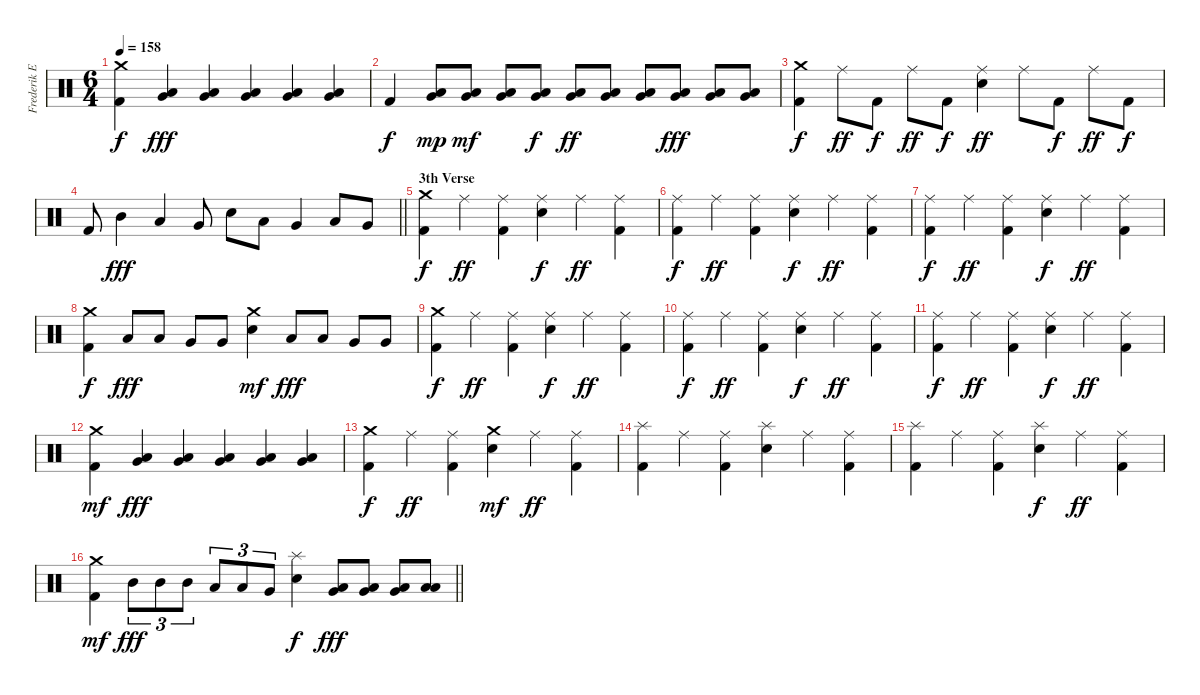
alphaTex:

\track ("Frederik Ehmke" "Frederik E") {instrument percussion}
\staff {score}
\articulation defaults
\ts (6 4)
\tempo 158
\clef neutral
\ks c
("Crash medium (hit)" "Kick (hit) 2").4{dy f} ("Low Tom (hit)" "Very Low Tom (hit)").4{dy fff} ("Low Tom (hit)" "Very Low Tom (hit)").4 ("Low Tom (hit)" "Very Low Tom (hit)").4 ("Low Tom (hit)" "Very Low Tom (hit)").4 ("Low Tom (hit)" "Very Low Tom (hit)").4 |
"Kick (hit) 2".4{dy f} ("Low Tom (hit)" "Very Low Tom (hit)").8{dy mp} ("Low Tom (hit)" "Very Low Tom (hit)").8{dy mf} ("Low Tom (hit)" "Very Low Tom (hit)").8 ("Low Tom (hit)" "Very Low Tom (hit)").8{dy f} ("Low Tom (hit)" "Very Low Tom (hit)").8{dy ff} ("Low Tom (hit)" "Very Low Tom (hit)").8 ("Low Tom (hit)" "Very Low Tom (hit)").8 ("Low Tom (hit)" "Very Low Tom (hit)").8{dy fff} ("Low Tom (hit)" "Very Low Tom (hit)").8 ("Low Tom (hit)" "Very Low Tom (hit)").8 |
("Crash medium (hit)" "Kick (hit) 2").4{dy f} "Ride (middle)".8{dy ff} "Kick (hit) 2".8{dy f} "Ride (middle)".8{dy ff} "Kick (hit) 2".8{dy f} ("Ride (middle)" "Electric Snare (hit)").4{dy ff} "Ride (middle)".8 "Kick (hit) 2".8{dy f} "Ride (middle)".8{dy ff} "Kick (hit) 2".8{dy f} |
\barLineRight lightlight "Kick (hit) 2".8 "Mid Tom (hit)".4{dy fff} "Low Tom (hit)".4 "Very Low Tom (hit)".8 "Electric Snare (hit)".8 "Low Tom (hit)".8 "Very Low Tom (hit)".4 "Low Tom (hit)".8 "Very Low Tom (hit)".8
|
\section ("" "3th Verse")
("Crash medium (hit)" "Kick (hit) 2").4{dy f} "Ride (middle)".4{dy ff} ("Ride (middle)" "Kick (hit) 2").4 ("Ride (middle)" "Electric Snare (hit)").4{dy f} "Ride (middle)".4{dy ff} ("Ride (middle)" "Kick (hit) 2").4 |
("Ride (middle)" "Kick (hit) 2").4{dy f} "Ride (middle)".4{dy ff} ("Ride (middle)" "Kick (hit) 2").4 ("Ride (middle)" "Electric Snare (hit)").4{dy f} "Ride (middle)".4{dy ff} ("Ride (middle)" "Kick (hit) 2").4 |
("Ride (middle)" "Kick (hit) 2").4{dy f} "Ride (middle)".4{dy ff} ("Ride (middle)" "Kick (hit) 2").4 ("Ride (middle)" "Electric Snare (hit)").4{dy f} "Ride (middle)".4{dy ff} ("Ride (middle)" "Kick (hit) 2").4 |
("Crash medium (hit)" "Kick (hit) 2").4{dy f} "Low Tom (hit)".8{dy fff} "Low Tom (hit)".8 "Very Low Tom (hit)".8 "Very Low Tom (hit)".8 ("Crash medium (hit)" "Electric Snare (hit)").4{dy mf} "Low Tom (hit)".8{dy fff} "Low Tom (hit)".8 "Very Low Tom (hit)".8 "Very Low Tom (hit)".8 |
("Crash medium (hit)" "Kick (hit) 2").4{dy f} "Ride (middle)".4{dy ff} ("Ride (middle)" "Kick (hit) 2").4 ("Ride (middle)" "Electric Snare (hit)").4{dy f} "Ride (middle)".4{dy ff} ("Ride (middle)" "Kick (hit) 2").4 |
("Ride (middle)" "Kick (hit) 2").4{dy f} "Ride (middle)".4{dy ff} ("Ride (middle)" "Kick (hit) 2").4 ("Ride (middle)" "Electric Snare (hit)").4{dy f} "Ride (middle)".4{dy ff} ("Ride (middle)" "Kick (hit) 2").4 |
("Ride (middle)" "Kick (hit) 2").4{dy f} "Ride (middle)".4{dy ff} ("Ride (middle)" "Kick (hit) 2").4 ("Ride (middle)" "Electric Snare (hit)").4{dy f} "Ride (middle)".4{dy ff} ("Ride (middle)" "Kick (hit) 2").4 |
("Crash medium (hit)" "Kick (hit) 2").4{dy mf} ("Low Tom (hit)" "Very Low Tom (hit)").4{dy fff} ("Low Tom (hit)" "Very Low Tom (hit)").4 ("Low Tom (hit)" "Very Low Tom (hit)").4 ("Low Tom (hit)" "Very Low Tom (hit)").4 ("Low Tom (hit)" "Very Low Tom (hit)").4 |
("Crash medium (hit)" "Kick (hit) 2").4{dy f} "Ride (middle)".4{dy ff} ("Ride (middle)" "Kick (hit) 2").4 ("Crash medium (hit)" "Electric Snare (hit)").4{dy mf} "Ride (middle)".4{dy ff} ("Ride (middle)" "Kick (hit) 2").4 |
("Splash (hit)" "Kick (hit) 2").4 "Ride (middle)".4 ("Ride (middle)" "Kick (hit) 2").4 ("Splash (hit)" "Electric Snare (hit)").4 "Ride (middle)".4 ("Ride (middle)" "Kick (hit) 2").4 |
("Splash (hit)" "Kick (hit) 2").4 "Ride (middle)".4 ("Ride (middle)" "Kick (hit) 2").4 ("Splash (hit)" "Electric Snare (hit)").4{dy f} "Ride (middle)".4{dy ff} ("Ride (middle)" "Kick (hit) 2").4 |
\barLineRight lightlight
("Crash medium (hit)" "Kick (hit) 2").4{dy mf} "Mid Tom (hit)".8{tu (3 2) dy fff} "Mid Tom (hit)".8{tu (3 2)} "Mid Tom (hit)".8{tu (3 2)} "Low Tom (hit)".8{tu (3 2)} "Low Tom (hit)".8{tu (3 2)} "Very Low Tom (hit)".8{tu (3 2)} ("Splash (hit)" "Electric Snare (hit)").4{dy f} ("Low Tom (hit)" "Very Low Tom (hit)").8{dy fff} ("Low Tom (hit)" "Very Low Tom (hit)").8 ("Very Low Tom (hit)" "Low Floor Tom (hit)").8 ("Low Floor Tom (hit)" "Low Floor Tom (hit)").8
